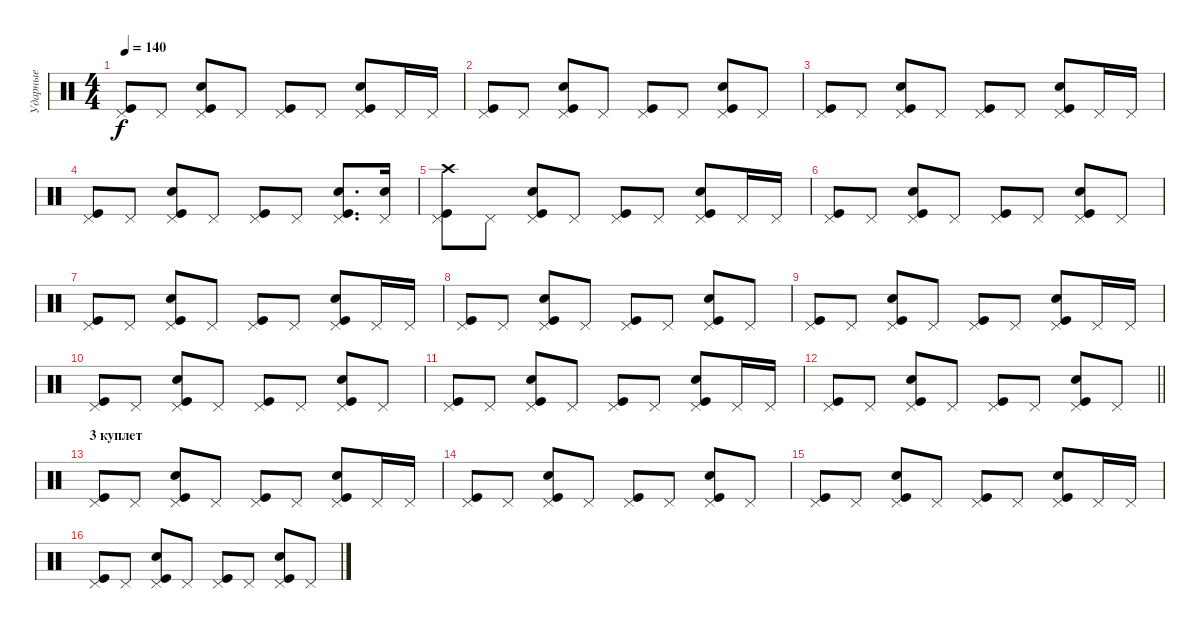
\track ("Ударные" "Ударные") {instrument percussion}
\staff {score}
\articulation defaults
\ts (4 4)
\tempo 140
\clef neutral
\ks c
("Pedal Hi-Hat (hit)" "Kick (hit)").8{dy f} "Pedal Hi-Hat (hit)".8 ("Pedal Hi-Hat (hit)" "Kick (hit)" "Snare (hit) 2").8 "Pedal Hi-Hat (hit)".8 ("Pedal Hi-Hat (hit)" "Kick (hit)").8 "Pedal Hi-Hat (hit)".8 ("Pedal Hi-Hat (hit)" "Kick (hit)" "Snare (hit) 2").8 "Pedal Hi-Hat (hit)".16 "Pedal Hi-Hat (hit)".16 |
("Pedal Hi-Hat (hit)" "Kick (hit)").8 "Pedal Hi-Hat (hit)".8 ("Pedal Hi-Hat (hit)" "Kick (hit)" "Snare (hit) 2").8 "Pedal Hi-Hat (hit)".8 ("Pedal Hi-Hat (hit)" "Kick (hit)").8 "Pedal Hi-Hat (hit)".8 ("Pedal Hi-Hat (hit)" "Kick (hit)" "Snare (hit) 2").8 "Pedal Hi-Hat (hit)".8 |
("Pedal Hi-Hat (hit)" "Kick (hit)").8 "Pedal Hi-Hat (hit)".8 ("Pedal Hi-Hat (hit)" "Kick (hit)" "Snare (hit) 2").8 "Pedal Hi-Hat (hit)".8 ("Pedal Hi-Hat (hit)" "Kick (hit)").8 "Pedal Hi-Hat (hit)".8 ("Pedal Hi-Hat (hit)" "Kick (hit)" "Snare (hit) 2").8 "Pedal Hi-Hat (hit)".16 "Pedal Hi-Hat (hit)".16 |
("Pedal Hi-Hat (hit)" "Kick (hit)").8 "Pedal Hi-Hat (hit)".8 ("Pedal Hi-Hat (hit)" "Kick (hit)" "Snare (hit) 2").8 "Pedal Hi-Hat (hit)".8 ("Pedal Hi-Hat (hit)" "Kick (hit)").8 "Pedal Hi-Hat (hit)".8 ("Pedal Hi-Hat (hit)" "Kick (hit)" "Snare (hit) 2").8{d} ("Pedal Hi-Hat (hit)" "Snare (hit) 2").16 |
("Pedal Hi-Hat (hit)" "Kick (hit)" "Crash high (hit)").8 "Pedal Hi-Hat (hit)".8 ("Pedal Hi-Hat (hit)" "Kick (hit)" "Snare (hit) 2").8 "Pedal Hi-Hat (hit)".8 ("Pedal Hi-Hat (hit)" "Kick (hit)").8 "Pedal Hi-Hat (hit)".8 ("Pedal Hi-Hat (hit)" "Kick (hit)" "Snare (hit) 2").8 "Pedal Hi-Hat (hit)".16 "Pedal Hi-Hat (hit)".16 |
("Pedal Hi-Hat (hit)" "Kick (hit)").8 "Pedal Hi-Hat (hit)".8 ("Pedal Hi-Hat (hit)" "Kick (hit)" "Snare (hit) 2").8 "Pedal Hi-Hat (hit)".8 ("Pedal Hi-Hat (hit)" "Kick (hit)").8 "Pedal Hi-Hat (hit)".8 ("Pedal Hi-Hat (hit)" "Kick (hit)" "Snare (hit) 2").8 "Pedal Hi-Hat (hit)".8 |
("Pedal Hi-Hat (hit)" "Kick (hit)").8 "Pedal Hi-Hat (hit)".8 ("Pedal Hi-Hat (hit)" "Kick (hit)" "Snare (hit) 2").8 "Pedal Hi-Hat (hit)".8 ("Pedal Hi-Hat (hit)" "Kick (hit)").8 "Pedal Hi-Hat (hit)".8 ("Pedal Hi-Hat (hit)" "Kick (hit)" "Snare (hit) 2").8 "Pedal Hi-Hat (hit)".16 "Pedal Hi-Hat (hit)".16 |
("Pedal Hi-Hat (hit)" "Kick (hit)").8 "Pedal Hi-Hat (hit)".8 ("Pedal Hi-Hat (hit)" "Kick (hit)" "Snare (hit) 2").8 "Pedal Hi-Hat (hit)".8 ("Pedal Hi-Hat (hit)" "Kick (hit)").8 "Pedal Hi-Hat (hit)".8 ("Pedal Hi-Hat (hit)" "Kick (hit)" "Snare (hit) 2").8 "Pedal Hi-Hat (hit)".8 |
("Pedal Hi-Hat (hit)" "Kick (hit)").8 "Pedal Hi-Hat (hit)".8 ("Pedal Hi-Hat (hit)" "Kick (hit)" "Snare (hit) 2").8 "Pedal Hi-Hat (hit)".8 ("Pedal Hi-Hat (hit)" "Kick (hit)").8 "Pedal Hi-Hat (hit)".8 ("Pedal Hi-Hat (hit)" "Kick (hit)" "Snare (hit) 2").8 "Pedal Hi-Hat (hit)".16 "Pedal Hi-Hat (hit)".16 |
("Pedal Hi-Hat (hit)" "Kick (hit)").8 "Pedal Hi-Hat (hit)".8 ("Pedal Hi-Hat (hit)" "Kick (hit)" "Snare (hit) 2").8 "Pedal Hi-Hat (hit)".8 ("Pedal Hi-Hat (hit)" "Kick (hit)").8 "Pedal Hi-Hat (hit)".8 ("Pedal Hi-Hat (hit)" "Kick (hit)" "Snare (hit) 2").8 "Pedal Hi-Hat (hit)".8 |
("Pedal Hi-Hat (hit)" "Kick (hit)").8 "Pedal Hi-Hat (hit)".8 ("Pedal Hi-Hat (hit)" "Kick (hit)" "Snare (hit) 2").8 "Pedal Hi-Hat (hit)".8 ("Pedal Hi-Hat (hit)" "Kick (hit)").8 "Pedal Hi-Hat (hit)".8 ("Pedal Hi-Hat (hit)" "Kick (hit)" "Snare (hit) 2").8 "Pedal Hi-Hat (hit)".16 "Pedal Hi-Hat (hit)".16 |
\barLineRight lightlight
("Pedal Hi-Hat (hit)" "Kick (hit)").8 "Pedal Hi-Hat (hit)".8 ("Pedal Hi-Hat (hit)" "Kick (hit)" "Snare (hit) 2").8 "Pedal Hi-Hat (hit)".8 ("Pedal Hi-Hat (hit)" "Kick (hit)").8 "Pedal Hi-Hat (hit)".8 ("Pedal Hi-Hat (hit)" "Kick (hit)" "Snare (hit) 2").8 "Pedal Hi-Hat (hit)".8 |
\section ("" "3 куплет")
("Pedal Hi-Hat (hit)" "Kick (hit)").8 "Pedal Hi-Hat (hit)".8 ("Pedal Hi-Hat (hit)" "Kick (hit)" "Snare (hit) 2").8 "Pedal Hi-Hat (hit)".8 ("Pedal Hi-Hat (hit)" "Kick (hit)").8 "Pedal Hi-Hat (hit)".8 ("Pedal Hi-Hat (hit)" "Kick (hit)" "Snare (hit) 2").8 "Pedal Hi-Hat (hit)".16 "Pedal Hi-Hat (hit)".16 |
("Pedal Hi-Hat (hit)" "Kick (hit)").8 "Pedal Hi-Hat (hit)".8 ("Pedal Hi-Hat (hit)" "Kick (hit)" "Snare (hit) 2").8 "Pedal Hi-Hat (hit)".8 ("Pedal Hi-Hat (hit)" "Kick (hit)").8 "Pedal Hi-Hat (hit)".8 ("Pedal Hi-Hat (hit)" "Kick (hit)" "Snare (hit) 2").8 "Pedal Hi-Hat (hit)".8 |
("Pedal Hi-Hat (hit)" "Kick (hit)").8 "Pedal Hi-Hat (hit)".8 ("Pedal Hi-Hat (hit)" "Kick (hit)" "Snare (hit) 2").8 "Pedal Hi-Hat (hit)".8 ("Pedal Hi-Hat (hit)" "Kick (hit)").8 "Pedal Hi-Hat (hit)".8 ("Pedal Hi-Hat (hit)" "Kick (hit)" "Snare (hit) 2").8 "Pedal Hi-Hat (hit)".16 "Pedal Hi-Hat (hit)".16 |
("Pedal Hi-Hat (hit)" "Kick (hit)").8 "Pedal Hi-Hat (hit)".8 ("Pedal Hi-Hat (hit)" "Kick (hit)" "Snare (hit) 2").8 "Pedal Hi-Hat (hit)".8 ("Pedal Hi-Hat (hit)" "Kick (hit)").8 "Pedal Hi-Hat (hit)".8 ("Pedal Hi-Hat (hit)" "Kick (hit)" "Snare (hit) 2").8 "Pedal Hi-Hat (hit)".8
